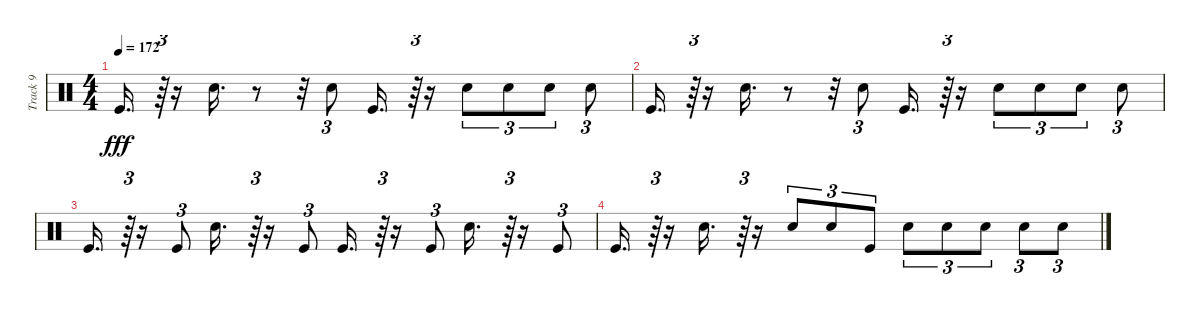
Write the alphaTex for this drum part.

\track ("Track 9" "Track 9") {instrument percussion}
\staff {score}
\articulation defaults
\ts (4 4)
\tempo 172
\clef neutral
\ks c "Kick (hit)".16{d dy fff}
r.64{tu (3 2)} r.16 "Snare (hit) 2".16{d} r.8 r.32 "Snare (hit) 2".8{tu (3 2)} "Kick (hit)".16{d} r.64{tu (3 2)} r.16 "Snare (hit) 2".8{tu (3 2)} "Snare (hit) 2".8{tu (3 2)} "Snare (hit) 2".8{tu (3 2)} "Snare (hit) 2".8{tu (3 2)} |
"Kick (hit)".16{d} r.64{tu (3 2)} r.16 "Snare (hit) 2".16{d} r.8 r.32 "Snare (hit) 2".8{tu (3 2)} "Kick (hit)".16{d} r.64{tu (3 2)} r.16 "Snare (hit) 2".8{tu (3 2)} "Snare (hit) 2".8{tu (3 2)} "Snare (hit) 2".8{tu (3 2)} "Snare (hit) 2".8{tu (3 2)} |
"Kick (hit)".16{d} r.64{tu (3 2)} r.16 "Kick (hit)".8{tu (3 2)} "Snare (hit) 2".16{d} r.64{tu (3 2)} r.16 "Kick (hit)".8{tu (3 2)} "Kick (hit)".16{d} r.64{tu (3 2)} r.16 "Kick (hit)".8{tu (3 2)} "Snare (hit) 2".16{d} r.64{tu (3 2)} r.16 "Kick (hit)".8{tu (3 2)} |
"Kick (hit)".16{d} r.64{tu (3 2)} r.16 "Snare (hit) 2".16{d} r.64{tu (3 2)} r.16 "Snare (hit) 2".8{tu (3 2)} "Snare (hit) 2".8{tu (3 2)} "Kick (hit)".8{tu (3 2)} "Snare (hit) 2".8{tu (3 2)} "Snare (hit) 2".8{tu (3 2)} "Snare (hit) 2".8{tu (3 2)} "Snare (hit) 2".8{tu (3 2)} "Snare (hit) 2".8{tu (3 2)}
